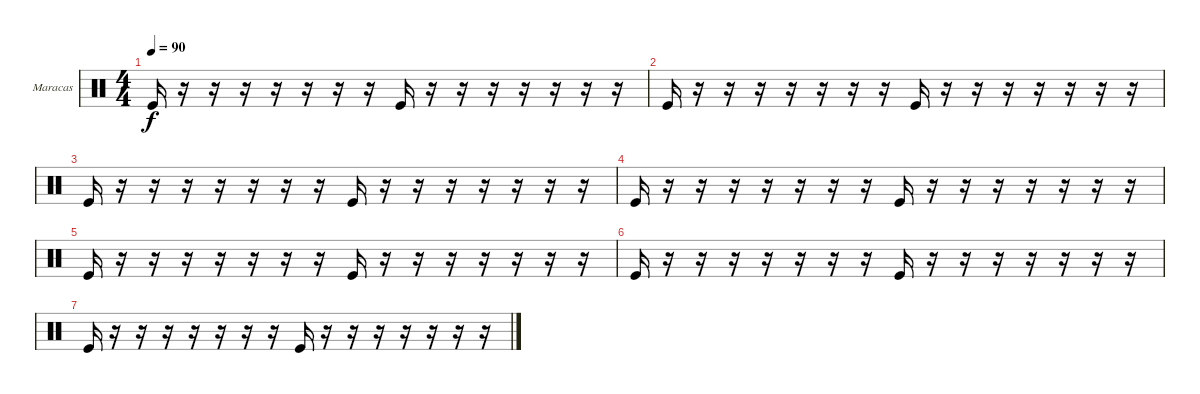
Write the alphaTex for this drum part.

\bracketExtendMode groupsimilarinstruments
\firstSystemTrackNameOrientation horizontal
\otherSystemsTrackNameOrientation horizontal
\track ("Maracas" "Maracas") {multiBarRest instrument percussion}
\staff {score}
\articulation defaults
\ts (4 4)
\tempo 90
\clef neutral
\ks c "Kick (hit)".16{dy f}
r.16 r.16 r.16 r.16 r.16 r.16 r.16 "Kick (hit)".16 r.16 r.16 r.16 r.16 r.16 r.16 r.16 |
"Kick (hit)".16 r.16 r.16 r.16 r.16 r.16 r.16 r.16 "Kick (hit)".16 r.16 r.16 r.16 r.16 r.16 r.16 r.16 |
"Kick (hit)".16 r.16 r.16 r.16 r.16 r.16 r.16 r.16 "Kick (hit)".16 r.16 r.16 r.16 r.16 r.16 r.16 r.16 |
"Kick (hit)".16 r.16 r.16 r.16 r.16 r.16 r.16 r.16 "Kick (hit)".16 r.16 r.16 r.16 r.16 r.16 r.16 r.16 |
"Kick (hit)".16 r.16 r.16 r.16 r.16 r.16 r.16 r.16 "Kick (hit)".16 r.16 r.16 r.16 r.16 r.16 r.16 r.16 |
"Kick (hit)".16 r.16 r.16 r.16 r.16 r.16 r.16 r.16 "Kick (hit)".16 r.16 r.16 r.16 r.16 r.16 r.16 r.16 |
"Kick (hit)".16 r.16 r.16 r.16 r.16 r.16 r.16 r.16 "Kick (hit)".16 r.16 r.16 r.16 r.16 r.16 r.16 r.16
